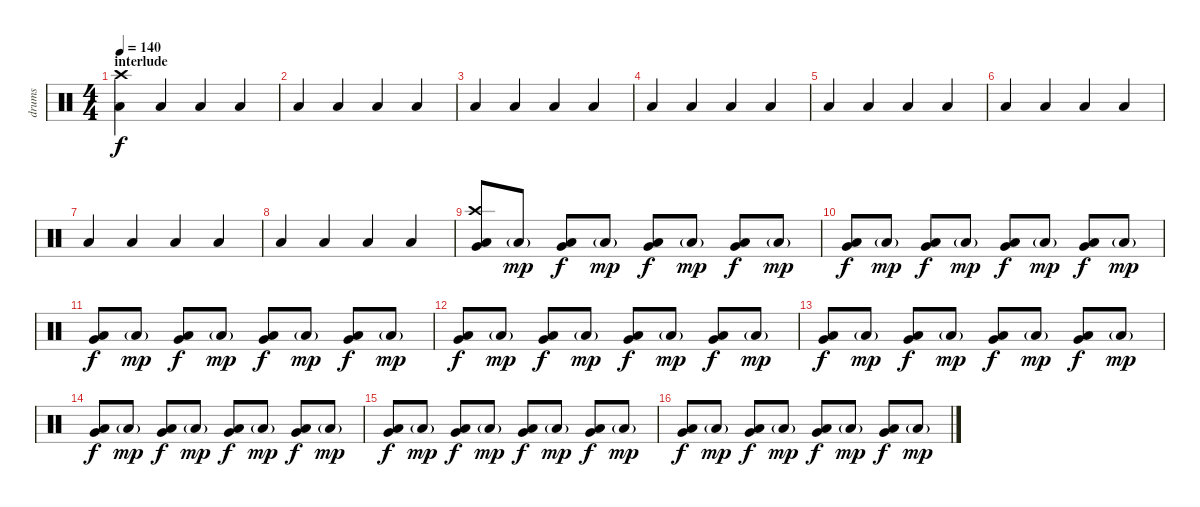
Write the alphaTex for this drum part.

\track ("drums" "drums") {instrument percussion}
\staff {score}
\articulation defaults
\ts (4 4)
\section ("" "interlude")
\tempo 140
\clef neutral
\ks c
("Low Floor Tom (hit)" "Crash high (hit)").4{dy f} "Low Floor Tom (hit)".4 "Low Floor Tom (hit)".4 "Low Floor Tom (hit)".4 |
"Low Floor Tom (hit)".4 "Low Floor Tom (hit)".4 "Low Floor Tom (hit)".4 "Low Floor Tom (hit)".4 |
"Low Floor Tom (hit)".4 "Low Floor Tom (hit)".4 "Low Floor Tom (hit)".4 "Low Floor Tom (hit)".4 |
"Low Floor Tom (hit)".4 "Low Floor Tom (hit)".4 "Low Floor Tom (hit)".4 "Low Floor Tom (hit)".4 |
"Low Floor Tom (hit)".4 "Low Floor Tom (hit)".4 "Low Floor Tom (hit)".4 "Low Floor Tom (hit)".4 |
"Low Floor Tom (hit)".4 "Low Floor Tom (hit)".4 "Low Floor Tom (hit)".4 "Low Floor Tom (hit)".4 |
"Low Floor Tom (hit)".4 "Low Floor Tom (hit)".4 "Low Floor Tom (hit)".4 "Low Floor Tom (hit)".4 |
"Low Floor Tom (hit)".4 "Low Floor Tom (hit)".4 "Low Floor Tom (hit)".4 "Low Floor Tom (hit)".4 |
("Very Low Tom (hit)" "Low Floor Tom (hit)" "Crash high (hit)").8 "Low Floor Tom (hit)"{g}.8{dy mp} ("Very Low Tom (hit)" "Low Floor Tom (hit)").8{dy f} "Low Floor Tom (hit)"{g}.8{dy mp} ("Very Low Tom (hit)" "Low Floor Tom (hit)").8{dy f} "Low Floor Tom (hit)"{g}.8{dy mp} ("Very Low Tom (hit)" "Low Floor Tom (hit)").8{dy f} "Low Floor Tom (hit)"{g}.8{dy mp} |
("Very Low Tom (hit)" "Low Floor Tom (hit)").8{dy f} "Low Floor Tom (hit)"{g}.8{dy mp} ("Very Low Tom (hit)" "Low Floor Tom (hit)").8{dy f} "Low Floor Tom (hit)"{g}.8{dy mp} ("Very Low Tom (hit)" "Low Floor Tom (hit)").8{dy f} "Low Floor Tom (hit)"{g}.8{dy mp} ("Very Low Tom (hit)" "Low Floor Tom (hit)").8{dy f} "Low Floor Tom (hit)"{g}.8{dy mp} |
("Very Low Tom (hit)" "Low Floor Tom (hit)").8{dy f} "Low Floor Tom (hit)"{g}.8{dy mp} ("Very Low Tom (hit)" "Low Floor Tom (hit)").8{dy f} "Low Floor Tom (hit)"{g}.8{dy mp} ("Very Low Tom (hit)" "Low Floor Tom (hit)").8{dy f} "Low Floor Tom (hit)"{g}.8{dy mp} ("Very Low Tom (hit)" "Low Floor Tom (hit)").8{dy f} "Low Floor Tom (hit)"{g}.8{dy mp} |
("Very Low Tom (hit)" "Low Floor Tom (hit)").8{dy f} "Low Floor Tom (hit)"{g}.8{dy mp} ("Very Low Tom (hit)" "Low Floor Tom (hit)").8{dy f} "Low Floor Tom (hit)"{g}.8{dy mp} ("Very Low Tom (hit)" "Low Floor Tom (hit)").8{dy f} "Low Floor Tom (hit)"{g}.8{dy mp} ("Very Low Tom (hit)" "Low Floor Tom (hit)").8{dy f} "Low Floor Tom (hit)"{g}.8{dy mp} |
("Very Low Tom (hit)" "Low Floor Tom (hit)").8{dy f} "Low Floor Tom (hit)"{g}.8{dy mp} ("Very Low Tom (hit)" "Low Floor Tom (hit)").8{dy f} "Low Floor Tom (hit)"{g}.8{dy mp} ("Very Low Tom (hit)" "Low Floor Tom (hit)").8{dy f} "Low Floor Tom (hit)"{g}.8{dy mp} ("Very Low Tom (hit)" "Low Floor Tom (hit)").8{dy f} "Low Floor Tom (hit)"{g}.8{dy mp} |
("Very Low Tom (hit)" "Low Floor Tom (hit)").8{dy f} "Low Floor Tom (hit)"{g}.8{dy mp} ("Very Low Tom (hit)" "Low Floor Tom (hit)").8{dy f} "Low Floor Tom (hit)"{g}.8{dy mp} ("Very Low Tom (hit)" "Low Floor Tom (hit)").8{dy f} "Low Floor Tom (hit)"{g}.8{dy mp} ("Very Low Tom (hit)" "Low Floor Tom (hit)").8{dy f} "Low Floor Tom (hit)"{g}.8{dy mp} |
("Very Low Tom (hit)" "Low Floor Tom (hit)").8{dy f} "Low Floor Tom (hit)"{g}.8{dy mp} ("Very Low Tom (hit)" "Low Floor Tom (hit)").8{dy f} "Low Floor Tom (hit)"{g}.8{dy mp} ("Very Low Tom (hit)" "Low Floor Tom (hit)").8{dy f} "Low Floor Tom (hit)"{g}.8{dy mp} ("Very Low Tom (hit)" "Low Floor Tom (hit)").8{dy f} "Low Floor Tom (hit)"{g}.8{dy mp} |
("Very Low Tom (hit)" "Low Floor Tom (hit)").8{dy f} "Low Floor Tom (hit)"{g}.8{dy mp} ("Very Low Tom (hit)" "Low Floor Tom (hit)").8{dy f} "Low Floor Tom (hit)"{g}.8{dy mp} ("Very Low Tom (hit)" "Low Floor Tom (hit)").8{dy f} "Low Floor Tom (hit)"{g}.8{dy mp} ("Very Low Tom (hit)" "Low Floor Tom (hit)").8{dy f} "Low Floor Tom (hit)"{g}.8{dy mp}
